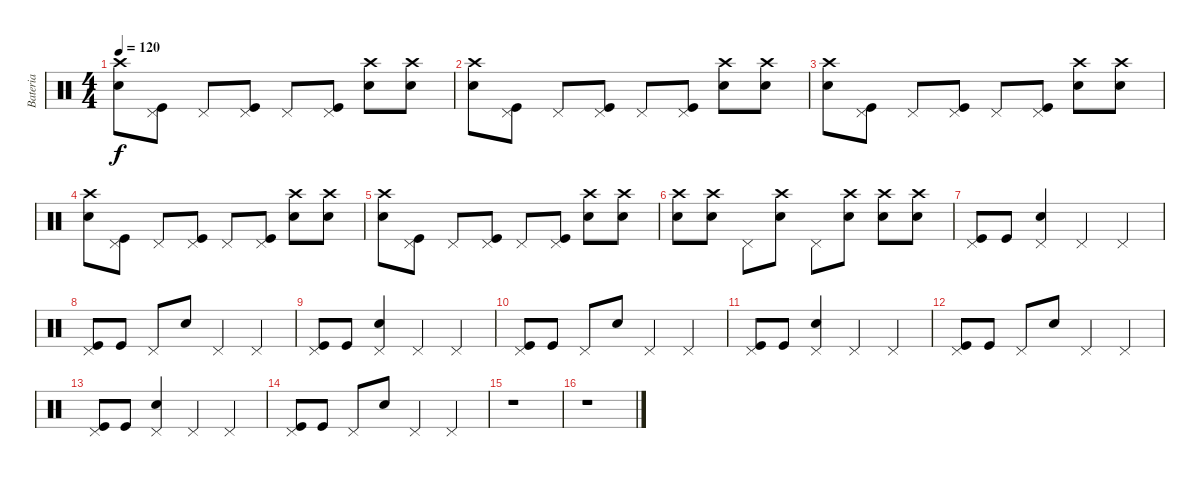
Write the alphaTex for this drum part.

\track ("Bateria" "Bateria") {instrument percussion}
\staff {score}
\articulation defaults
\ts (4 4)
\tempo 120
\clef neutral
\ks c
("Crash high (hit)" "Snare (hit) 2").8{dy f} ("Pedal Hi-Hat (hit)" "Kick (hit)").8 "Pedal Hi-Hat (hit)".8 ("Pedal Hi-Hat (hit)" "Kick (hit)").8 "Pedal Hi-Hat (hit)".8 ("Pedal Hi-Hat (hit)" "Kick (hit)").8 ("Crash high (hit)" "Snare (hit) 2").8 ("Crash high (hit)" "Snare (hit) 2").8 |
("Crash high (hit)" "Snare (hit) 2").8 ("Pedal Hi-Hat (hit)" "Kick (hit)").8 "Pedal Hi-Hat (hit)".8 ("Pedal Hi-Hat (hit)" "Kick (hit)").8 "Pedal Hi-Hat (hit)".8 ("Pedal Hi-Hat (hit)" "Kick (hit)").8 ("Crash high (hit)" "Snare (hit) 2").8 ("Crash high (hit)" "Snare (hit) 2").8 |
("Crash high (hit)" "Snare (hit) 2").8 ("Pedal Hi-Hat (hit)" "Kick (hit)").8 "Pedal Hi-Hat (hit)".8 ("Pedal Hi-Hat (hit)" "Kick (hit)").8 "Pedal Hi-Hat (hit)".8 ("Pedal Hi-Hat (hit)" "Kick (hit)").8 ("Crash high (hit)" "Snare (hit) 2").8 ("Crash high (hit)" "Snare (hit) 2").8 |
("Crash high (hit)" "Snare (hit) 2").8 ("Pedal Hi-Hat (hit)" "Kick (hit)").8 "Pedal Hi-Hat (hit)".8 ("Pedal Hi-Hat (hit)" "Kick (hit)").8 "Pedal Hi-Hat (hit)".8 ("Pedal Hi-Hat (hit)" "Kick (hit)").8 ("Crash high (hit)" "Snare (hit) 2").8 ("Crash high (hit)" "Snare (hit) 2").8 |
("Crash high (hit)" "Snare (hit) 2").8 ("Pedal Hi-Hat (hit)" "Kick (hit)").8 "Pedal Hi-Hat (hit)".8 ("Pedal Hi-Hat (hit)" "Kick (hit)").8 "Pedal Hi-Hat (hit)".8 ("Pedal Hi-Hat (hit)" "Kick (hit)").8 ("Crash high (hit)" "Snare (hit) 2").8 ("Crash high (hit)" "Snare (hit) 2").8 |
("Crash high (hit)" "Snare (hit) 2").8 ("Crash high (hit)" "Snare (hit) 2").8 "Pedal Hi-Hat (hit)".8 ("Crash high (hit)" "Snare (hit) 2").8 "Pedal Hi-Hat (hit)".8 ("Crash high (hit)" "Snare (hit) 2").8 ("Crash high (hit)" "Snare (hit) 2").8 ("Crash high (hit)" "Snare (hit) 2").8 |
("Pedal Hi-Hat (hit)" "Kick (hit)").8 "Kick (hit)".8 ("Pedal Hi-Hat (hit)" "Snare (hit) 2").4 "Pedal Hi-Hat (hit)".4 "Pedal Hi-Hat (hit)".4 |
("Pedal Hi-Hat (hit)" "Kick (hit)").8 "Kick (hit)".8 "Pedal Hi-Hat (hit)".8 "Snare (hit) 2".8 "Pedal Hi-Hat (hit)".4 "Pedal Hi-Hat (hit)".4 |
("Pedal Hi-Hat (hit)" "Kick (hit)").8 "Kick (hit)".8 ("Pedal Hi-Hat (hit)" "Snare (hit) 2").4 "Pedal Hi-Hat (hit)".4 "Pedal Hi-Hat (hit)".4 |
("Pedal Hi-Hat (hit)" "Kick (hit)").8 "Kick (hit)".8 "Pedal Hi-Hat (hit)".8 "Snare (hit) 2".8 "Pedal Hi-Hat (hit)".4 "Pedal Hi-Hat (hit)".4 |
("Pedal Hi-Hat (hit)" "Kick (hit)").8 "Kick (hit)".8 ("Pedal Hi-Hat (hit)" "Snare (hit) 2").4 "Pedal Hi-Hat (hit)".4 "Pedal Hi-Hat (hit)".4 |
("Pedal Hi-Hat (hit)" "Kick (hit)").8 "Kick (hit)".8 "Pedal Hi-Hat (hit)".8 "Snare (hit) 2".8 "Pedal Hi-Hat (hit)".4 "Pedal Hi-Hat (hit)".4 |
("Pedal Hi-Hat (hit)" "Kick (hit)").8 "Kick (hit)".8 ("Pedal Hi-Hat (hit)" "Snare (hit) 2").4 "Pedal Hi-Hat (hit)".4 "Pedal Hi-Hat (hit)".4 |
("Pedal Hi-Hat (hit)" "Kick (hit)").8 "Kick (hit)".8 "Pedal Hi-Hat (hit)".8 "Snare (hit) 2".8 "Pedal Hi-Hat (hit)".4 "Pedal Hi-Hat (hit)".4 |
r.1 |
r.1
